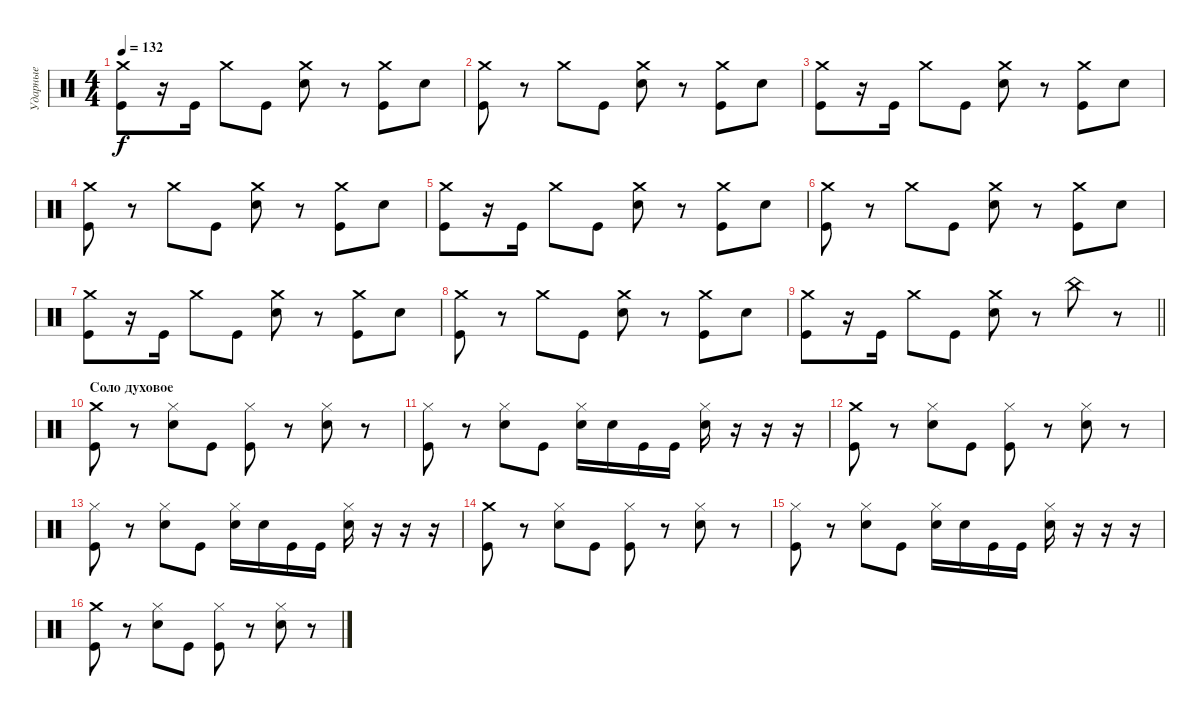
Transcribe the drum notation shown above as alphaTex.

\track ("Ударные" "Ударные") {instrument percussion}
\staff {score}
\articulation defaults
\ts (4 4)
\tempo 132
\clef neutral
\ks c
("Crash medium (hit)" "Kick (hit)").8{dy f} r.16 "Kick (hit)".16 "Crash medium (hit)".8 "Kick (hit)".8 ("Crash medium (hit)" "Electric Snare (hit)").8 r.8 ("Crash medium (hit)" "Kick (hit)").8 "Electric Snare (hit)".8 |
("Crash medium (hit)" "Kick (hit)").8 r.8 "Crash medium (hit)".8 "Kick (hit)".8 ("Crash medium (hit)" "Electric Snare (hit)").8 r.8 ("Crash medium (hit)" "Kick (hit)").8 "Electric Snare (hit)".8 |
("Crash medium (hit)" "Kick (hit)").8 r.16 "Kick (hit)".16 "Crash medium (hit)".8 "Kick (hit)".8 ("Crash medium (hit)" "Electric Snare (hit)").8 r.8 ("Crash medium (hit)" "Kick (hit)").8 "Electric Snare (hit)".8 |
("Crash medium (hit)" "Kick (hit)").8 r.8 "Crash medium (hit)".8 "Kick (hit)".8 ("Crash medium (hit)" "Electric Snare (hit)").8 r.8 ("Crash medium (hit)" "Kick (hit)").8 "Electric Snare (hit)".8 |
("Crash medium (hit)" "Kick (hit)").8 r.16 "Kick (hit)".16 "Crash medium (hit)".8 "Kick (hit)".8 ("Crash medium (hit)" "Electric Snare (hit)").8 r.8 ("Crash medium (hit)" "Kick (hit)").8 "Electric Snare (hit)".8 |
("Crash medium (hit)" "Kick (hit)").8 r.8 "Crash medium (hit)".8 "Kick (hit)".8 ("Crash medium (hit)" "Electric Snare (hit)").8 r.8 ("Crash medium (hit)" "Kick (hit)").8 "Electric Snare (hit)".8 |
("Crash medium (hit)" "Kick (hit)").8 r.16 "Kick (hit)".16 "Crash medium (hit)".8 "Kick (hit)".8 ("Crash medium (hit)" "Electric Snare (hit)").8 r.8 ("Crash medium (hit)" "Kick (hit)").8 "Electric Snare (hit)".8 |
("Crash medium (hit)" "Kick (hit)").8 r.8 "Crash medium (hit)".8 "Kick (hit)".8 ("Crash medium (hit)" "Electric Snare (hit)").8 r.8 ("Crash medium (hit)" "Kick (hit)").8 "Electric Snare (hit)".8 |
\barLineRight lightlight
("Crash medium (hit)" "Kick (hit)").8 r.16 "Kick (hit)".16 "Crash medium (hit)".8 "Kick (hit)".8 ("Crash medium (hit)" "Electric Snare (hit)").8 r.8 "China (hit)".8 r.8 |
\section ("" "Соло духовое")
("Crash medium (hit)" "Kick (hit)").8 r.8 ("Hi-Hat (closed)" "Electric Snare (hit)").8 "Kick (hit)".8 ("Hi-Hat (closed)" "Kick (hit)").8 r.8 ("Hi-Hat (closed)" "Electric Snare (hit)").8 r.8 |
("Hi-Hat (closed)" "Kick (hit)").8 r.8 ("Hi-Hat (closed)" "Electric Snare (hit)").8 "Kick (hit)".8 ("Hi-Hat (closed)" "Electric Snare (hit)").16 "Electric Snare (hit)".16 "Kick (hit)".16 "Kick (hit)".16 ("Hi-Hat (closed)" "Electric Snare (hit)").16 r.16 r.16 r.16 |
("Crash medium (hit)" "Kick (hit)").8 r.8 ("Hi-Hat (closed)" "Electric Snare (hit)").8 "Kick (hit)".8 ("Hi-Hat (closed)" "Kick (hit)").8 r.8 ("Hi-Hat (closed)" "Electric Snare (hit)").8 r.8 |
("Hi-Hat (closed)" "Kick (hit)").8 r.8 ("Hi-Hat (closed)" "Electric Snare (hit)").8 "Kick (hit)".8 ("Hi-Hat (closed)" "Electric Snare (hit)").16 "Electric Snare (hit)".16 "Kick (hit)".16 "Kick (hit)".16 ("Hi-Hat (closed)" "Electric Snare (hit)").16 r.16 r.16 r.16 |
("Crash medium (hit)" "Kick (hit)").8 r.8 ("Hi-Hat (closed)" "Electric Snare (hit)").8 "Kick (hit)".8 ("Hi-Hat (closed)" "Kick (hit)").8 r.8 ("Hi-Hat (closed)" "Electric Snare (hit)").8 r.8 |
("Hi-Hat (closed)" "Kick (hit)").8 r.8 ("Hi-Hat (closed)" "Electric Snare (hit)").8 "Kick (hit)".8 ("Hi-Hat (closed)" "Electric Snare (hit)").16 "Electric Snare (hit)".16 "Kick (hit)".16 "Kick (hit)".16 ("Hi-Hat (closed)" "Electric Snare (hit)").16 r.16 r.16 r.16 |
("Crash medium (hit)" "Kick (hit)").8 r.8 ("Hi-Hat (closed)" "Electric Snare (hit)").8 "Kick (hit)".8 ("Hi-Hat (closed)" "Kick (hit)").8 r.8 ("Hi-Hat (closed)" "Electric Snare (hit)").8 r.8
